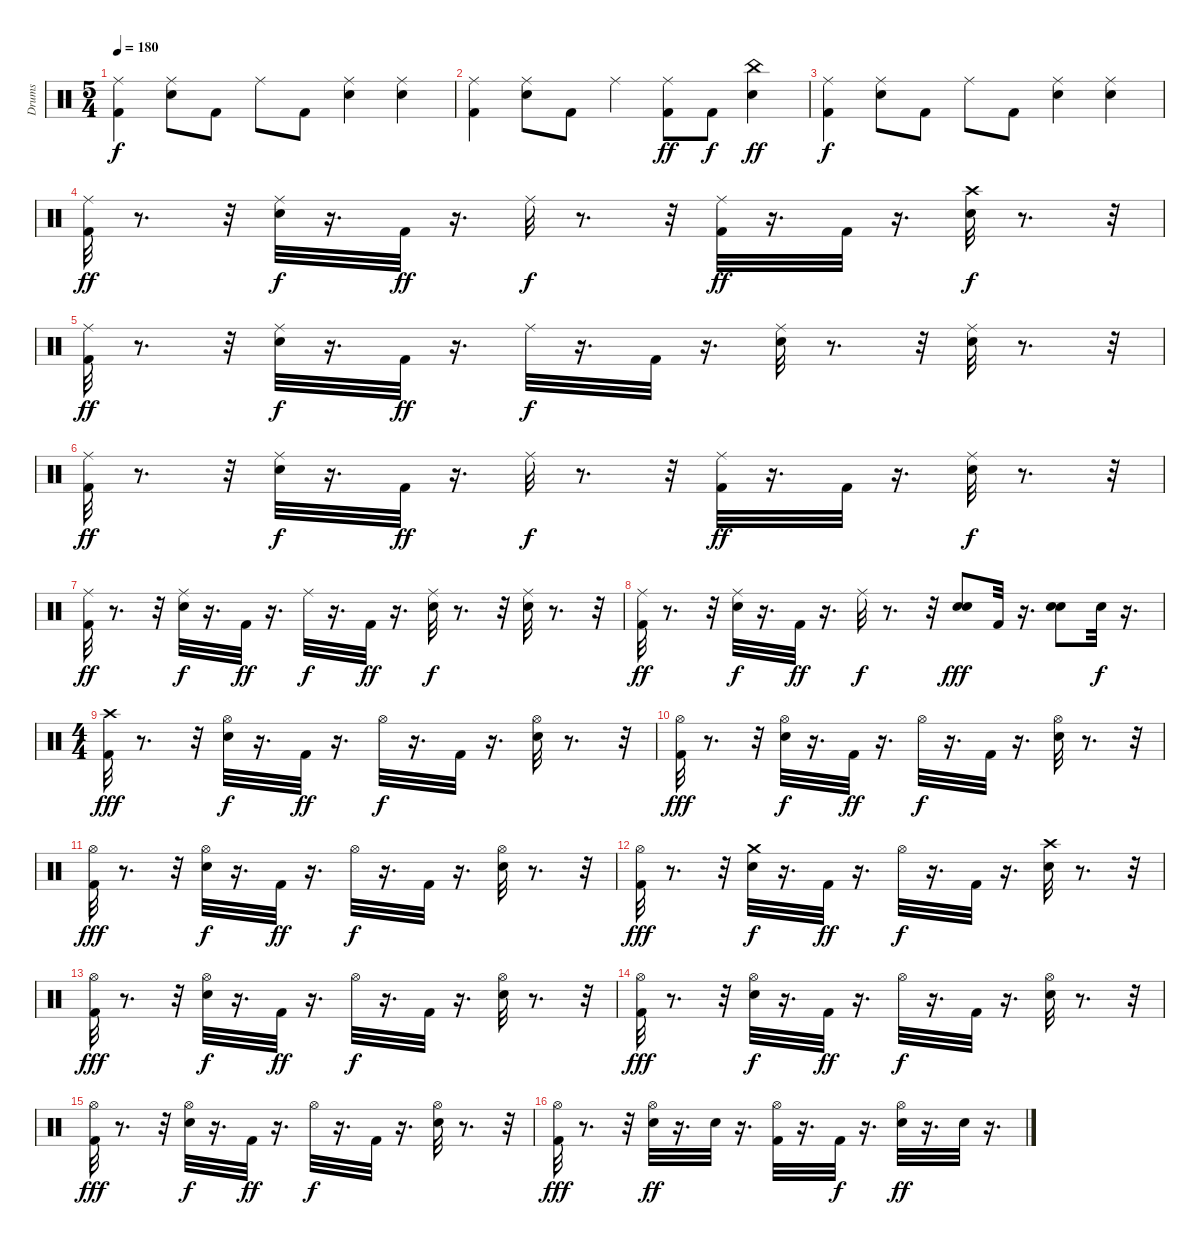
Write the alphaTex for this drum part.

\track ("Drums" "Drums") {instrument percussion}
\staff {score}
\articulation defaults
\ts (5 4)
\tempo 180
\clef neutral
\ks c
("Ride (middle)" "Kick (hit) 2").4{dy f} ("Ride (middle)" "Snare (hit) 2").8 "Kick (hit) 2".8 "Ride (middle)".8 "Kick (hit) 2".8 ("Ride (middle)" "Snare (hit) 2").4 ("Ride (middle)" "Snare (hit) 2").4 |
("Ride (middle)" "Kick (hit) 2").4 ("Ride (middle)" "Snare (hit) 2").8 "Kick (hit) 2".8 "Ride (middle)".4 ("Ride (middle)" "Kick (hit) 2").8{dy ff} "Kick (hit) 2".8{dy f} ("China (hit)" "Snare (hit) 2").4{dy ff} |
("Ride (middle)" "Kick (hit) 2").4{dy f} ("Ride (middle)" "Snare (hit) 2").8 "Kick (hit) 2".8 "Ride (middle)".8 "Kick (hit) 2".8 ("Ride (middle)" "Snare (hit) 2").4 ("Ride (middle)" "Snare (hit) 2").4 |
("Ride (middle)" "Kick (hit) 2").32{dy ff} r.8{d} r.32 ("Ride (middle)" "Snare (hit) 2").32{dy f} r.16{d} "Kick (hit) 2".32{dy ff} r.16{d} "Ride (middle)".32{dy f} r.8{d} r.32 ("Kick (hit) 2" "Ride (middle)").32{dy ff} r.16{d} "Kick (hit) 2".32 r.16{d} ("Crash high (hit)" "Snare (hit) 2").32{dy f} r.8{d} r.32 |
("Ride (middle)" "Kick (hit) 2").32{dy ff} r.8{d} r.32 ("Ride (middle)" "Snare (hit) 2").32{dy f} r.16{d} "Kick (hit) 2".32{dy ff} r.16{d} "Ride (middle)".32{dy f} r.16{d} "Kick (hit) 2".32 r.16{d} ("Ride (middle)" "Snare (hit) 2").32 r.8{d} r.32 ("Ride (middle)" "Snare (hit) 2").32 r.8{d} r.32 |
("Ride (middle)" "Kick (hit) 2").32{dy ff} r.8{d} r.32 ("Ride (middle)" "Snare (hit) 2").32{dy f} r.16{d} "Kick (hit) 2".32{dy ff} r.16{d} "Ride (middle)".32{dy f} r.8{d} r.32 ("Kick (hit) 2" "Ride (middle)").32{dy ff} r.16{d} "Kick (hit) 2".32 r.16{d} ("Ride (middle)" "Snare (hit) 2").32{dy f} r.8{d} r.32 |
("Ride (middle)" "Kick (hit) 2").32{dy ff} r.8{d} r.32 ("Ride (middle)" "Snare (hit) 2").32{dy f} r.16{d} "Kick (hit) 2".32{dy ff} r.16{d} "Ride (middle)".32{dy f} r.16{d} "Kick (hit) 2".32{dy ff} r.16{d} ("Ride (middle)" "Snare (hit) 2").32{dy f} r.8{d} r.32 ("Ride (middle)" "Snare (hit) 2").32 r.8{d} r.32 |
("Ride (middle)" "Kick (hit) 2").32{dy ff} r.8{d} r.32 ("Ride (middle)" "Snare (hit) 2").32{dy f} r.16{d} "Kick (hit) 2".32{dy ff} r.16{d} "Ride (middle)".32{dy f} r.8{d} r.32 ("Snare (hit) 2" "Snare (hit) 2").8{dy fff} "Kick (hit) 2".32 r.16{d} ("Snare (hit) 2" "Snare (hit) 2").8 "Snare (hit) 2".32{dy f} r.16{d} |
\ts (4 4)
("Kick (hit) 2" "Crash high (hit)").32{dy fff} r.8{d} r.32 ("Hi-Hat (open)" "Snare (hit) 2").32{dy f} r.16{d} "Kick (hit) 2".32{dy ff} r.16{d} "Hi-Hat (open)".32{dy f} r.16{d} "Kick (hit) 2".32 r.16{d} ("Hi-Hat (open)" "Snare (hit) 2").32 r.8{d} r.32 |
("Hi-Hat (open)" "Kick (hit) 2").32{dy fff} r.8{d} r.32 ("Hi-Hat (open)" "Snare (hit) 2").32{dy f} r.16{d} "Kick (hit) 2".32{dy ff} r.16{d} "Hi-Hat (open)".32{dy f} r.16{d} "Kick (hit) 2".32 r.16{d} ("Hi-Hat (open)" "Snare (hit) 2").32 r.8{d} r.32 |
("Hi-Hat (open)" "Kick (hit) 2").32{dy fff} r.8{d} r.32 ("Hi-Hat (open)" "Snare (hit) 2").32{dy f} r.16{d} "Kick (hit) 2".32{dy ff} r.16{d} "Hi-Hat (open)".32{dy f} r.16{d} "Kick (hit) 2".32 r.16{d} ("Hi-Hat (open)" "Snare (hit) 2").32 r.8{d} r.32 |
("Hi-Hat (open)" "Kick (hit) 2").32{dy fff} r.8{d} r.32 ("Crash medium (hit)" "Snare (hit) 2").32{dy f} r.16{d} "Kick (hit) 2".32{dy ff} r.16{d} "Hi-Hat (open)".32{dy f} r.16{d} "Kick (hit) 2".32 r.16{d} ("Crash high (hit)" "Snare (hit) 2").32 r.8{d} r.32 |
("Hi-Hat (open)" "Kick (hit) 2").32{dy fff} r.8{d} r.32 ("Hi-Hat (open)" "Snare (hit) 2").32{dy f} r.16{d} "Kick (hit) 2".32{dy ff} r.16{d} "Hi-Hat (open)".32{dy f} r.16{d} "Kick (hit) 2".32 r.16{d} ("Hi-Hat (open)" "Snare (hit) 2").32 r.8{d} r.32 |
("Hi-Hat (open)" "Kick (hit) 2").32{dy fff} r.8{d} r.32 ("Hi-Hat (open)" "Snare (hit) 2").32{dy f} r.16{d} "Kick (hit) 2".32{dy ff} r.16{d} "Hi-Hat (open)".32{dy f} r.16{d} "Kick (hit) 2".32 r.16{d} ("Hi-Hat (open)" "Snare (hit) 2").32 r.8{d} r.32 |
("Hi-Hat (open)" "Kick (hit) 2").32{dy fff} r.8{d} r.32 ("Hi-Hat (open)" "Snare (hit) 2").32{dy f} r.16{d} "Kick (hit) 2".32{dy ff} r.16{d} "Hi-Hat (open)".32{dy f} r.16{d} "Kick (hit) 2".32 r.16{d} ("Hi-Hat (open)" "Snare (hit) 2").32 r.8{d} r.32 |
("Hi-Hat (open)" "Kick (hit) 2").32{dy fff} r.8{d} r.32 ("Hi-Hat (open)" "Snare (hit) 2").32{dy ff} r.16{d} "Snare (hit) 2".32 r.16{d} ("Kick (hit) 2" "Hi-Hat (open)").32 r.16{d} "Kick (hit) 2".32{dy f} r.16{d} ("Hi-Hat (open)" "Snare (hit) 2").32{dy ff} r.16{d} "Snare (hit) 2".32 r.16{d}
